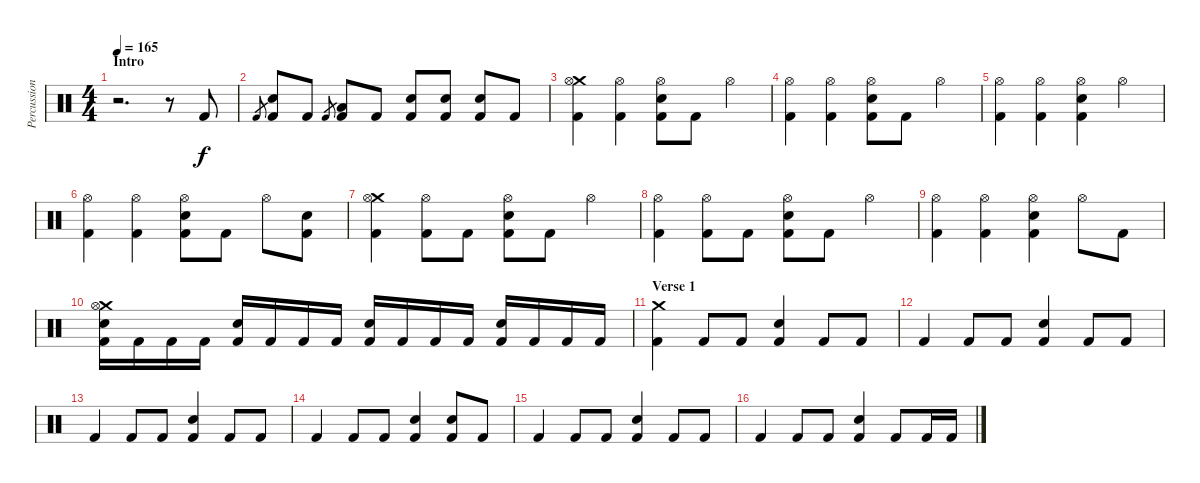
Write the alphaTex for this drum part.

\track ("Percussions" "Percussion") {instrument percussion}
\staff {score}
\articulation defaults
\ts (4 4)
\section ("" "Intro")
\tempo 165
\clef neutral
\ks c
r.2{d dy f} r.8 "Kick (hit) 2".8 |
"Kick (hit) 2".8{gr} ("Electric Snare (hit)" "Kick (hit) 2").8 "Kick (hit) 2".8 "Kick (hit) 2".8{gr} ("Low Floor Tom (hit)" "Kick (hit) 2").8 "Kick (hit) 2".8 ("Electric Snare (hit)" "Kick (hit) 2").8 ("Electric Snare (hit)" "Kick (hit) 2").8 ("Electric Snare (hit)" "Kick (hit) 2").8 "Kick (hit) 2".8 |
("Crash medium (hit)" "Hi-Hat (open)" "Kick (hit) 2").4 ("Hi-Hat (open)" "Kick (hit) 2").4 ("Hi-Hat (open)" "Electric Snare (hit)" "Kick (hit) 2").8 "Kick (hit) 2".8 "Hi-Hat (open)".4 |
("Hi-Hat (open)" "Kick (hit) 2").4 ("Hi-Hat (open)" "Kick (hit) 2").4 ("Hi-Hat (open)" "Electric Snare (hit)" "Kick (hit) 2").8 "Kick (hit) 2".8 "Hi-Hat (open)".4 |
("Hi-Hat (open)" "Kick (hit) 2").4 ("Hi-Hat (open)" "Kick (hit) 2").4 ("Hi-Hat (open)" "Electric Snare (hit)" "Kick (hit) 2").4 "Hi-Hat (open)".4 |
("Hi-Hat (open)" "Kick (hit) 2").4 ("Hi-Hat (open)" "Kick (hit) 2").4 ("Hi-Hat (open)" "Electric Snare (hit)" "Kick (hit) 2").8 "Kick (hit) 2".8 "Hi-Hat (open)".8 ("Electric Snare (hit)" "Kick (hit) 2").8 |
("Crash medium (hit)" "Hi-Hat (open)" "Kick (hit) 2").4 ("Hi-Hat (open)" "Kick (hit) 2").8 "Kick (hit) 2".8 ("Hi-Hat (open)" "Electric Snare (hit)" "Kick (hit) 2").8 "Kick (hit) 2".8 "Hi-Hat (open)".4 |
("Hi-Hat (open)" "Kick (hit) 2").4 ("Hi-Hat (open)" "Kick (hit) 2").8 "Kick (hit) 2".8 ("Hi-Hat (open)" "Electric Snare (hit)" "Kick (hit) 2").8 "Kick (hit) 2".8 "Hi-Hat (open)".4 |
("Hi-Hat (open)" "Kick (hit) 2").4 ("Hi-Hat (open)" "Kick (hit) 2").4 ("Hi-Hat (open)" "Electric Snare (hit)" "Kick (hit) 2").4 "Hi-Hat (open)".8 "Kick (hit) 2".8 |
("Crash medium (hit)" "Hi-Hat (open)" "Electric Snare (hit)" "Kick (hit) 2").16 "Kick (hit) 2".16 "Kick (hit) 2".16 "Kick (hit) 2".16 ("Electric Snare (hit)" "Kick (hit) 2").16 "Kick (hit) 2".16 "Kick (hit) 2".16 "Kick (hit) 2".16 ("Electric Snare (hit)" "Kick (hit) 2").16 "Kick (hit) 2".16 "Kick (hit) 2".16 "Kick (hit) 2".16 ("Electric Snare (hit)" "Kick (hit) 2").16 "Kick (hit) 2".16 "Kick (hit) 2".16 "Kick (hit) 2".16 |
\section ("" "Verse 1")
("Crash medium (hit)" "Kick (hit) 2").4 "Kick (hit) 2".8 "Kick (hit) 2".8 ("Electric Snare (hit)" "Kick (hit) 2").4 "Kick (hit) 2".8 "Kick (hit) 2".8 |
"Kick (hit) 2".4 "Kick (hit) 2".8 "Kick (hit) 2".8 ("Electric Snare (hit)" "Kick (hit) 2").4 "Kick (hit) 2".8 "Kick (hit) 2".8 |
"Kick (hit) 2".4 "Kick (hit) 2".8 "Kick (hit) 2".8 ("Electric Snare (hit)" "Kick (hit) 2").4 "Kick (hit) 2".8 "Kick (hit) 2".8 |
"Kick (hit) 2".4 "Kick (hit) 2".8 "Kick (hit) 2".8 ("Electric Snare (hit)" "Kick (hit) 2").4 ("Electric Snare (hit)" "Kick (hit) 2").8 "Kick (hit) 2".8 |
"Kick (hit) 2".4 "Kick (hit) 2".8 "Kick (hit) 2".8 ("Electric Snare (hit)" "Kick (hit) 2").4 "Kick (hit) 2".8 "Kick (hit) 2".8 |
"Kick (hit) 2".4 "Kick (hit) 2".8 "Kick (hit) 2".8 ("Electric Snare (hit)" "Kick (hit) 2").4 "Kick (hit) 2".8 "Kick (hit) 2".16 "Kick (hit) 2".16
